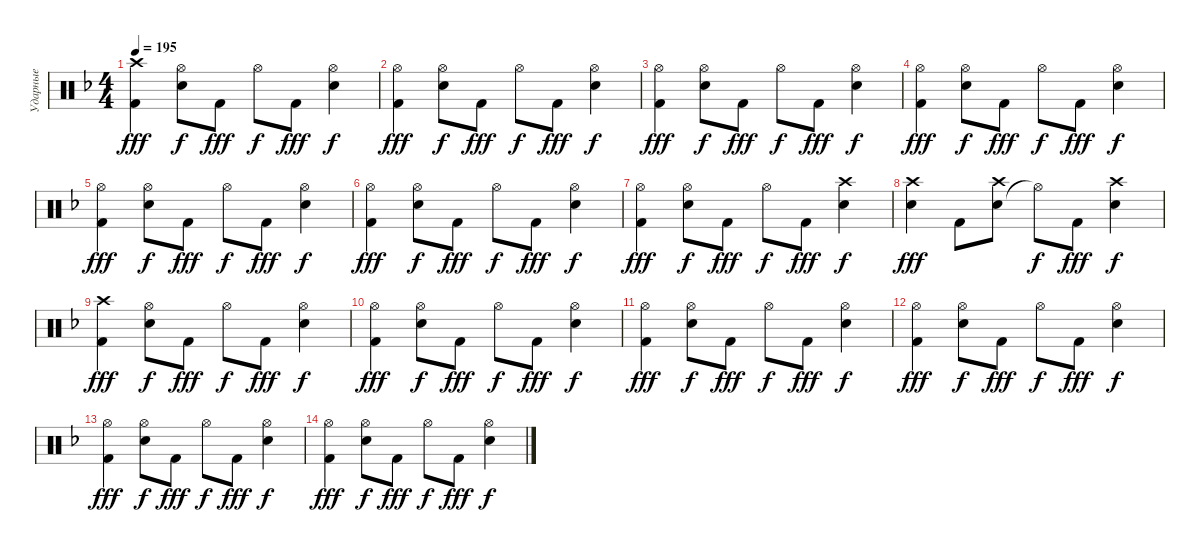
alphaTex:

\track ("Ударные" "Ударные") {instrument percussion}
\staff {score}
\articulation defaults
\ts (4 4)
\tempo 195
\clef neutral
\ks f
("Kick (hit) 2" "Crash high (hit)").4{dy fff} ("Snare (hit) 2" "Hi-Hat (open)").8{dy f} "Kick (hit) 2".8{dy fff} "Hi-Hat (open)".8{dy f} "Kick (hit) 2".8{dy fff} ("Snare (hit) 2" "Hi-Hat (open)").4{dy f} |
("Kick (hit) 2" "Hi-Hat (open)").4{dy fff} ("Snare (hit) 2" "Hi-Hat (open)").8{dy f} "Kick (hit) 2".8{dy fff} "Hi-Hat (open)".8{dy f} "Kick (hit) 2".8{dy fff} ("Snare (hit) 2" "Hi-Hat (open)").4{dy f} |
("Kick (hit) 2" "Hi-Hat (open)").4{dy fff} ("Snare (hit) 2" "Hi-Hat (open)").8{dy f} "Kick (hit) 2".8{dy fff} "Hi-Hat (open)".8{dy f} "Kick (hit) 2".8{dy fff} ("Snare (hit) 2" "Hi-Hat (open)").4{dy f} |
("Kick (hit) 2" "Hi-Hat (open)").4{dy fff} ("Snare (hit) 2" "Hi-Hat (open)").8{dy f} "Kick (hit) 2".8{dy fff} "Hi-Hat (open)".8{dy f} "Kick (hit) 2".8{dy fff} ("Snare (hit) 2" "Hi-Hat (open)").4{dy f} |
("Kick (hit) 2" "Hi-Hat (open)").4{dy fff} ("Snare (hit) 2" "Hi-Hat (open)").8{dy f} "Kick (hit) 2".8{dy fff} "Hi-Hat (open)".8{dy f} "Kick (hit) 2".8{dy fff} ("Snare (hit) 2" "Hi-Hat (open)").4{dy f} |
("Kick (hit) 2" "Hi-Hat (open)").4{dy fff} ("Snare (hit) 2" "Hi-Hat (open)").8{dy f} "Kick (hit) 2".8{dy fff} "Hi-Hat (open)".8{dy f} "Kick (hit) 2".8{dy fff} ("Snare (hit) 2" "Hi-Hat (open)").4{dy f} |
("Kick (hit) 2" "Hi-Hat (open)").4{dy fff} ("Snare (hit) 2" "Hi-Hat (open)").8{dy f} "Kick (hit) 2".8{dy fff} "Hi-Hat (open)".8{dy f} "Kick (hit) 2".8{dy fff} ("Snare (hit) 2" "Crash high (hit)").4{dy f} |
("Snare (hit) 2" "Crash high (hit)").4{dy fff} "Kick (hit) 2".8 ("Snare (hit) 2" "Crash high (hit)").8 "Hi-Hat (open)"{t}.8{dy f} "Kick (hit) 2".8{dy fff} ("Snare (hit) 2" "Crash high (hit)").4{dy f} |
("Kick (hit) 2" "Crash high (hit)").4{dy fff} ("Snare (hit) 2" "Hi-Hat (open)").8{dy f} "Kick (hit) 2".8{dy fff} "Hi-Hat (open)".8{dy f} "Kick (hit) 2".8{dy fff} ("Snare (hit) 2" "Hi-Hat (open)").4{dy f} |
("Kick (hit) 2" "Hi-Hat (open)").4{dy fff} ("Snare (hit) 2" "Hi-Hat (open)").8{dy f} "Kick (hit) 2".8{dy fff} "Hi-Hat (open)".8{dy f} "Kick (hit) 2".8{dy fff} ("Snare (hit) 2" "Hi-Hat (open)").4{dy f} |
("Kick (hit) 2" "Hi-Hat (open)").4{dy fff} ("Snare (hit) 2" "Hi-Hat (open)").8{dy f} "Kick (hit) 2".8{dy fff} "Hi-Hat (open)".8{dy f} "Kick (hit) 2".8{dy fff} ("Snare (hit) 2" "Hi-Hat (open)").4{dy f} |
("Kick (hit) 2" "Hi-Hat (open)").4{dy fff} ("Snare (hit) 2" "Hi-Hat (open)").8{dy f} "Kick (hit) 2".8{dy fff} "Hi-Hat (open)".8{dy f} "Kick (hit) 2".8{dy fff} ("Snare (hit) 2" "Hi-Hat (open)").4{dy f} |
("Kick (hit) 2" "Hi-Hat (open)").4{dy fff} ("Snare (hit) 2" "Hi-Hat (open)").8{dy f} "Kick (hit) 2".8{dy fff} "Hi-Hat (open)".8{dy f} "Kick (hit) 2".8{dy fff} ("Snare (hit) 2" "Hi-Hat (open)").4{dy f} |
("Kick (hit) 2" "Hi-Hat (open)").4{dy fff} ("Snare (hit) 2" "Hi-Hat (open)").8{dy f} "Kick (hit) 2".8{dy fff} "Hi-Hat (open)".8{dy f} "Kick (hit) 2".8{dy fff} ("Snare (hit) 2" "Hi-Hat (open)").4{dy f}
